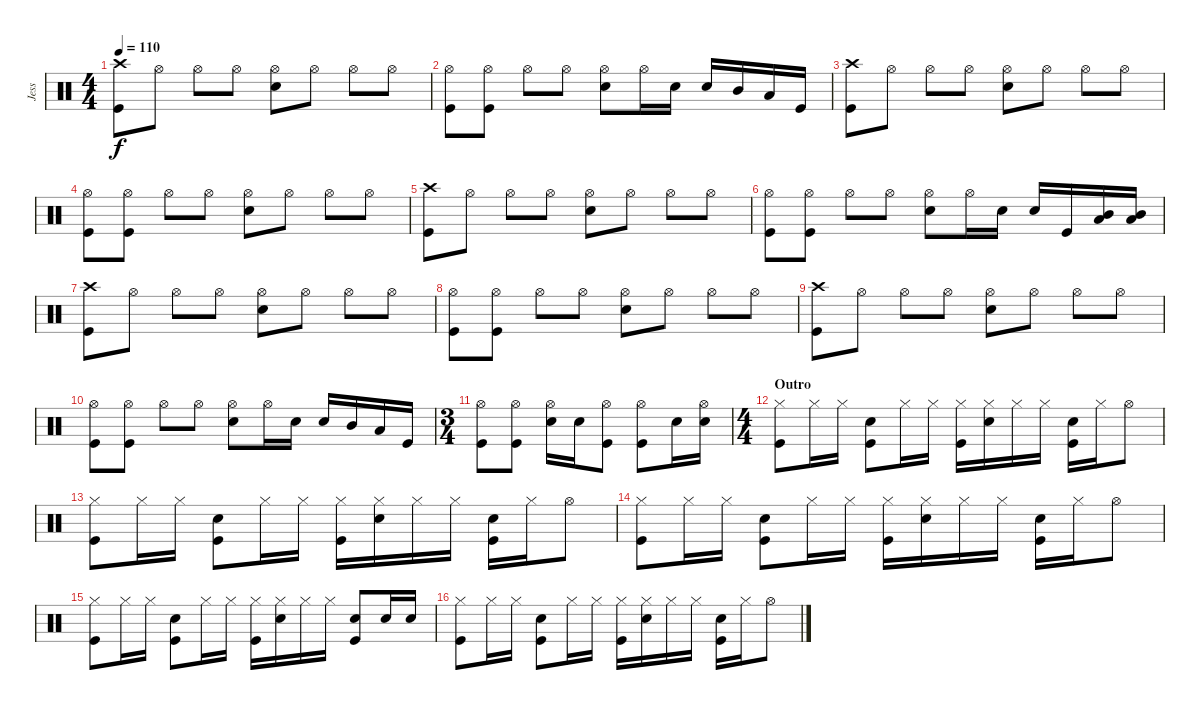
\track ("Jess" "Jess") {instrument percussion}
\staff {score}
\articulation defaults
\ts (4 4)
\tempo 110
\clef neutral
\ks c
("Crash high (hit)" "Kick (hit)").8{dy f} "Hi-Hat (open)".8 "Hi-Hat (open)".8 "Hi-Hat (open)".8 ("Hi-Hat (open)" "Electric Snare (hit)").8 "Hi-Hat (open)".8 "Hi-Hat (open)".8 "Hi-Hat (open)".8 |
("Hi-Hat (open)" "Kick (hit)").8 ("Hi-Hat (open)" "Kick (hit)").8 "Hi-Hat (open)".8 "Hi-Hat (open)".8 ("Hi-Hat (open)" "Electric Snare (hit)").8 "Hi-Hat (open)".16 "Electric Snare (hit)".16 "Electric Snare (hit)".16 "Mid Tom (hit)".16 "Low Tom (hit)".16 "Kick (hit)".16 |
("Crash high (hit)" "Kick (hit)").8 "Hi-Hat (open)".8 "Hi-Hat (open)".8 "Hi-Hat (open)".8 ("Hi-Hat (open)" "Electric Snare (hit)").8 "Hi-Hat (open)".8 "Hi-Hat (open)".8 "Hi-Hat (open)".8 |
("Hi-Hat (open)" "Kick (hit)").8 ("Hi-Hat (open)" "Kick (hit)").8 "Hi-Hat (open)".8 "Hi-Hat (open)".8 ("Hi-Hat (open)" "Electric Snare (hit)").8 "Hi-Hat (open)".8 "Hi-Hat (open)".8 "Hi-Hat (open)".8 |
("Crash high (hit)" "Kick (hit)").8 "Hi-Hat (open)".8 "Hi-Hat (open)".8 "Hi-Hat (open)".8 ("Hi-Hat (open)" "Electric Snare (hit)").8 "Hi-Hat (open)".8 "Hi-Hat (open)".8 "Hi-Hat (open)".8 |
("Hi-Hat (open)" "Kick (hit)").8 ("Hi-Hat (open)" "Kick (hit)").8 "Hi-Hat (open)".8 "Hi-Hat (open)".8 ("Hi-Hat (open)" "Electric Snare (hit)").8 "Hi-Hat (open)".16 "Electric Snare (hit)".16 "Electric Snare (hit)".16 "Kick (hit)".16 ("Mid Tom (hit)" "Low Tom (hit)").16 ("Mid Tom (hit)" "Low Tom (hit)").16 |
("Crash high (hit)" "Kick (hit)").8 "Hi-Hat (open)".8 "Hi-Hat (open)".8 "Hi-Hat (open)".8 ("Hi-Hat (open)" "Electric Snare (hit)").8 "Hi-Hat (open)".8 "Hi-Hat (open)".8 "Hi-Hat (open)".8 |
("Hi-Hat (open)" "Kick (hit)").8 ("Hi-Hat (open)" "Kick (hit)").8 "Hi-Hat (open)".8 "Hi-Hat (open)".8 ("Hi-Hat (open)" "Electric Snare (hit)").8 "Hi-Hat (open)".8 "Hi-Hat (open)".8 "Hi-Hat (open)".8 |
("Crash high (hit)" "Kick (hit)").8 "Hi-Hat (open)".8 "Hi-Hat (open)".8 "Hi-Hat (open)".8 ("Hi-Hat (open)" "Electric Snare (hit)").8 "Hi-Hat (open)".8 "Hi-Hat (open)".8 "Hi-Hat (open)".8 |
("Hi-Hat (open)" "Kick (hit)").8 ("Hi-Hat (open)" "Kick (hit)").8 "Hi-Hat (open)".8 "Hi-Hat (open)".8 ("Hi-Hat (open)" "Electric Snare (hit)").8 "Hi-Hat (open)".16 "Electric Snare (hit)".16 "Electric Snare (hit)".16 "Mid Tom (hit)".16 "Low Tom (hit)".16 "Kick (hit)".16 |
\ts (3 4)
("Hi-Hat (open)" "Kick (hit)").8 ("Hi-Hat (open)" "Kick (hit)").8 ("Hi-Hat (open)" "Electric Snare (hit)").16 "Electric Snare (hit)".16 ("Hi-Hat (open)" "Kick (hit)").8 ("Hi-Hat (open)" "Kick (hit)").8 "Electric Snare (hit)".16 ("Hi-Hat (open)" "Electric Snare (hit)").16 |
\ts (4 4)
\section ("" "Outro")
("Hi-Hat (closed)" "Kick (hit)").8 "Hi-Hat (closed)".16 "Hi-Hat (closed)".16 ("Electric Snare (hit)" "Kick (hit)").8 "Hi-Hat (closed)".16 "Hi-Hat (closed)".16 ("Hi-Hat (closed)" "Kick (hit)").16 ("Hi-Hat (closed)" "Electric Snare (hit)").16 "Hi-Hat (closed)".16 "Hi-Hat (closed)".16 ("Electric Snare (hit)" "Kick (hit)").16 "Hi-Hat (closed)".16 "Hi-Hat (open)".8 |
("Hi-Hat (closed)" "Kick (hit)").8 "Hi-Hat (closed)".16 "Hi-Hat (closed)".16 ("Electric Snare (hit)" "Kick (hit)").8 "Hi-Hat (closed)".16 "Hi-Hat (closed)".16 ("Hi-Hat (closed)" "Kick (hit)").16 ("Hi-Hat (closed)" "Electric Snare (hit)").16 "Hi-Hat (closed)".16 "Hi-Hat (closed)".16 ("Electric Snare (hit)" "Kick (hit)").16 "Hi-Hat (closed)".16 "Hi-Hat (open)".8 |
("Hi-Hat (closed)" "Kick (hit)").8 "Hi-Hat (closed)".16 "Hi-Hat (closed)".16 ("Electric Snare (hit)" "Kick (hit)").8 "Hi-Hat (closed)".16 "Hi-Hat (closed)".16 ("Hi-Hat (closed)" "Kick (hit)").16 ("Hi-Hat (closed)" "Electric Snare (hit)").16 "Hi-Hat (closed)".16 "Hi-Hat (closed)".16 ("Electric Snare (hit)" "Kick (hit)").16 "Hi-Hat (closed)".16 "Hi-Hat (open)".8 |
("Hi-Hat (closed)" "Kick (hit)").8 "Hi-Hat (closed)".16 "Hi-Hat (closed)".16 ("Electric Snare (hit)" "Kick (hit)").8 "Hi-Hat (closed)".16 "Hi-Hat (closed)".16 ("Hi-Hat (closed)" "Kick (hit)").16 ("Hi-Hat (closed)" "Electric Snare (hit)").16 "Hi-Hat (closed)".16 "Hi-Hat (closed)".16 ("Electric Snare (hit)" "Kick (hit)").8 "Electric Snare (hit)".16 "Electric Snare (hit)".16 |
("Hi-Hat (closed)" "Kick (hit)").8 "Hi-Hat (closed)".16 "Hi-Hat (closed)".16 ("Electric Snare (hit)" "Kick (hit)").8 "Hi-Hat (closed)".16 "Hi-Hat (closed)".16 ("Hi-Hat (closed)" "Kick (hit)").16 ("Hi-Hat (closed)" "Electric Snare (hit)").16 "Hi-Hat (closed)".16 "Hi-Hat (closed)".16 ("Electric Snare (hit)" "Kick (hit)").16 "Hi-Hat (closed)".16 "Hi-Hat (open)".8
